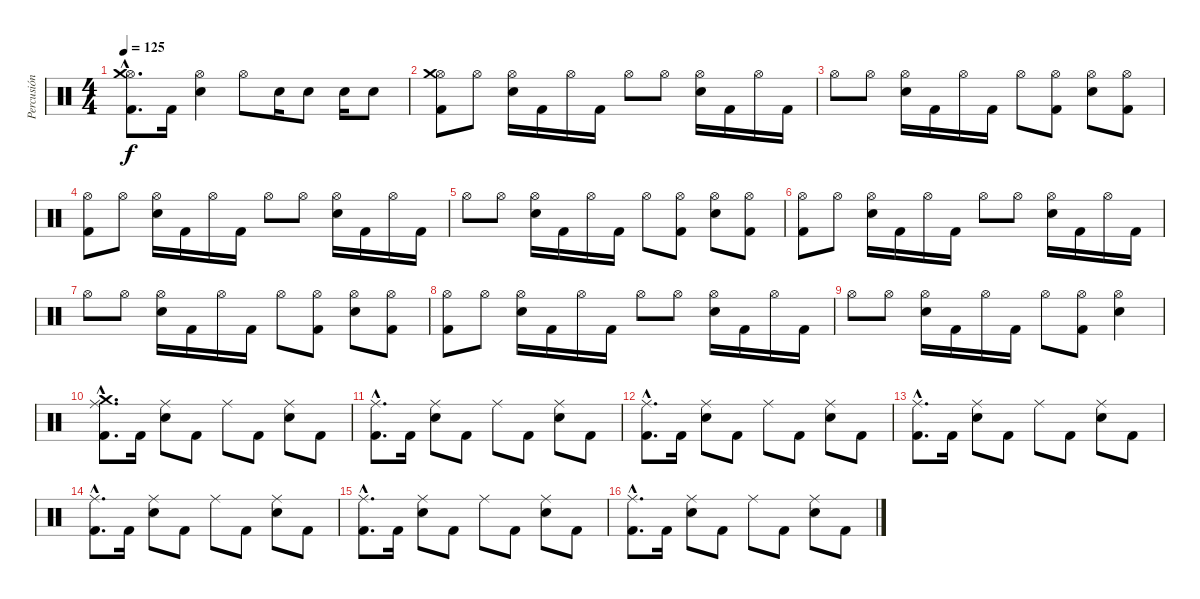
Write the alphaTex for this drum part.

\track ("Percusión" "Percusión") {instrument percussion}
\staff {score}
\articulation defaults
\ts (4 4)
\tempo 125
\clef neutral
\ks c
("Hi-Hat (open)"{hac} "Kick (hit) 2"{hac} "Crash medium (hit)"{hac}).8{d dy f} "Kick (hit) 2".16 ("Hi-Hat (open)" "Electric Snare (hit)").4 "Hi-Hat (open)".8 "Electric Snare (hit)".16 "Electric Snare (hit)".8 "Electric Snare (hit)".16 "Electric Snare (hit)".8 |
("Hi-Hat (open)" "Kick (hit) 2" "Crash medium (hit)").8 "Hi-Hat (open)".8 ("Hi-Hat (open)" "Electric Snare (hit)").16 "Kick (hit) 2".16 "Hi-Hat (open)".16 "Kick (hit) 2".16 "Hi-Hat (open)".8 "Hi-Hat (open)".8 ("Hi-Hat (open)" "Electric Snare (hit)").16 "Kick (hit) 2".16 "Hi-Hat (open)".16 "Kick (hit) 2".16 |
"Hi-Hat (open)".8 "Hi-Hat (open)".8 ("Hi-Hat (open)" "Electric Snare (hit)").16 "Kick (hit) 2".16 "Hi-Hat (open)".16 "Kick (hit) 2".16 "Hi-Hat (open)".8 ("Hi-Hat (open)" "Kick (hit) 2").8 ("Hi-Hat (open)" "Electric Snare (hit)").8 ("Hi-Hat (open)" "Kick (hit) 2").8 |
("Hi-Hat (open)" "Kick (hit) 2").8 "Hi-Hat (open)".8 ("Hi-Hat (open)" "Electric Snare (hit)").16 "Kick (hit) 2".16 "Hi-Hat (open)".16 "Kick (hit) 2".16 "Hi-Hat (open)".8 "Hi-Hat (open)".8 ("Hi-Hat (open)" "Electric Snare (hit)").16 "Kick (hit) 2".16 "Hi-Hat (open)".16 "Kick (hit) 2".16 |
"Hi-Hat (open)".8 "Hi-Hat (open)".8 ("Hi-Hat (open)" "Electric Snare (hit)").16 "Kick (hit) 2".16 "Hi-Hat (open)".16 "Kick (hit) 2".16 "Hi-Hat (open)".8 ("Hi-Hat (open)" "Kick (hit) 2").8 ("Hi-Hat (open)" "Electric Snare (hit)").8 ("Hi-Hat (open)" "Kick (hit) 2").8 |
("Hi-Hat (open)" "Kick (hit) 2").8 "Hi-Hat (open)".8 ("Hi-Hat (open)" "Electric Snare (hit)").16 "Kick (hit) 2".16 "Hi-Hat (open)".16 "Kick (hit) 2".16 "Hi-Hat (open)".8 "Hi-Hat (open)".8 ("Hi-Hat (open)" "Electric Snare (hit)").16 "Kick (hit) 2".16 "Hi-Hat (open)".16 "Kick (hit) 2".16 |
"Hi-Hat (open)".8 "Hi-Hat (open)".8 ("Hi-Hat (open)" "Electric Snare (hit)").16 "Kick (hit) 2".16 "Hi-Hat (open)".16 "Kick (hit) 2".16 "Hi-Hat (open)".8 ("Hi-Hat (open)" "Kick (hit) 2").8 ("Hi-Hat (open)" "Electric Snare (hit)").8 ("Hi-Hat (open)" "Kick (hit) 2").8 |
("Hi-Hat (open)" "Kick (hit) 2").8 "Hi-Hat (open)".8 ("Hi-Hat (open)" "Electric Snare (hit)").16 "Kick (hit) 2".16 "Hi-Hat (open)".16 "Kick (hit) 2".16 "Hi-Hat (open)".8 "Hi-Hat (open)".8 ("Hi-Hat (open)" "Electric Snare (hit)").16 "Kick (hit) 2".16 "Hi-Hat (open)".16 "Kick (hit) 2".16 |
"Hi-Hat (open)".8 "Hi-Hat (open)".8 ("Hi-Hat (open)" "Electric Snare (hit)").16 "Kick (hit) 2".16 "Hi-Hat (open)".16 "Kick (hit) 2".16 "Hi-Hat (open)".8 ("Hi-Hat (open)" "Kick (hit) 2").8 ("Hi-Hat (open)" "Electric Snare (hit)").4 |
("Ride (middle)"{hac} "Kick (hit) 2"{hac} "Crash medium (hit)"{hac}).8{d} "Kick (hit) 2".16 ("Ride (middle)" "Electric Snare (hit)").8 "Kick (hit) 2".8 "Ride (middle)".8 "Kick (hit) 2".8 ("Ride (middle)" "Electric Snare (hit)").8 "Kick (hit) 2".8 |
("Ride (middle)"{hac} "Kick (hit) 2"{hac}).8{d} "Kick (hit) 2".16 ("Ride (middle)" "Electric Snare (hit)").8 "Kick (hit) 2".8 "Ride (middle)".8 "Kick (hit) 2".8 ("Ride (middle)" "Electric Snare (hit)").8 "Kick (hit) 2".8 |
("Ride (middle)"{hac} "Kick (hit) 2"{hac}).8{d} "Kick (hit) 2".16 ("Ride (middle)" "Electric Snare (hit)").8 "Kick (hit) 2".8 "Ride (middle)".8 "Kick (hit) 2".8 ("Ride (middle)" "Electric Snare (hit)").8 "Kick (hit) 2".8 |
("Ride (middle)"{hac} "Kick (hit) 2"{hac}).8{d} "Kick (hit) 2".16 ("Ride (middle)" "Electric Snare (hit)").8 "Kick (hit) 2".8 "Ride (middle)".8 "Kick (hit) 2".8 ("Ride (middle)" "Electric Snare (hit)").8 "Kick (hit) 2".8 |
("Ride (middle)"{hac} "Kick (hit) 2"{hac}).8{d} "Kick (hit) 2".16 ("Ride (middle)" "Electric Snare (hit)").8 "Kick (hit) 2".8 "Ride (middle)".8 "Kick (hit) 2".8 ("Ride (middle)" "Electric Snare (hit)").8 "Kick (hit) 2".8 |
("Ride (middle)"{hac} "Kick (hit) 2"{hac}).8{d} "Kick (hit) 2".16 ("Ride (middle)" "Electric Snare (hit)").8 "Kick (hit) 2".8 "Ride (middle)".8 "Kick (hit) 2".8 ("Ride (middle)" "Electric Snare (hit)").8 "Kick (hit) 2".8 |
("Ride (middle)"{hac} "Kick (hit) 2"{hac}).8{d} "Kick (hit) 2".16 ("Ride (middle)" "Electric Snare (hit)").8 "Kick (hit) 2".8 "Ride (middle)".8 "Kick (hit) 2".8 ("Ride (middle)" "Electric Snare (hit)").8 "Kick (hit) 2".8
